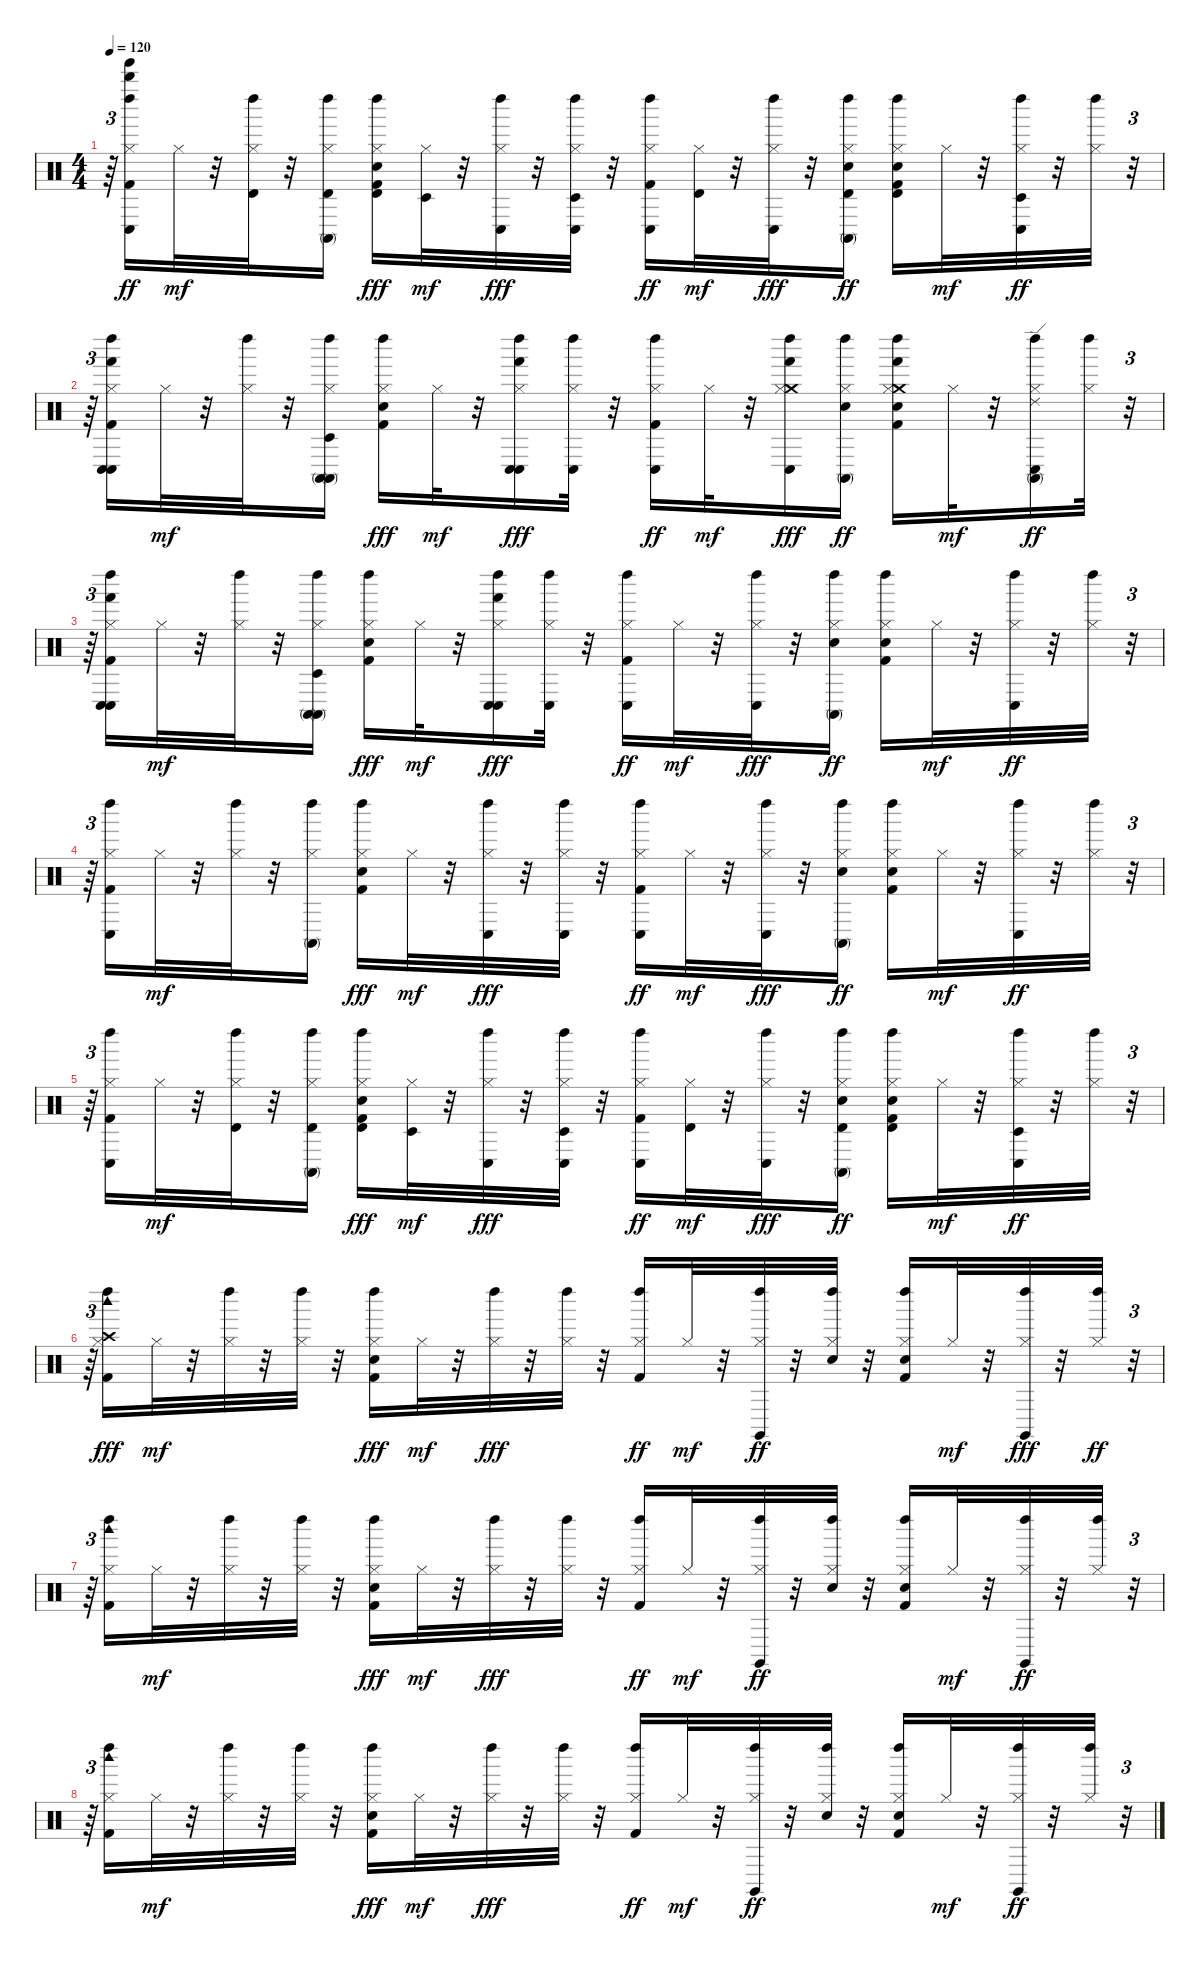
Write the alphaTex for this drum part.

\track "" {instrument percussion}
\staff {score}
\articulation defaults
\ts (4 4)
\tempo 120
\clef neutral
\ks c
r.64{tu (3 2) dy ff} ("Whistle high (hit)" "Tinkle Bell (hit)" "Kick (hit) 2" "Conga low (hit)" "Hi-Hat (closed)" "Left Maraca (hit)").16 "Hi-Hat (closed)".32{dy mf} r.32 ("Timbale high (hit)" "Hi-Hat (closed)" "Left Maraca (hit)").32 r.32 ("Timbale high (hit)" "Conga high (mute)" "Hi-Hat (closed)" "Left Maraca (hit)").16 ("Kick (hit) 2" "Electric Snare (hit)" "Timbale high (hit)" "Hi-Hat (closed)" "Left Maraca (hit)").16{dy fff} ("Timbale low (hit)" "Hi-Hat (closed)").32{dy mf} r.32 ("Conga low (hit)" "Hi-Hat (closed)" "Left Maraca (hit)").32{dy fff} r.32 ("Timbale low (hit)" "Conga low (hit)" "Hi-Hat (closed)" "Left Maraca (hit)").32 r.32 ("Kick (hit) 2" "Conga low (hit)" "Hi-Hat (closed)" "Left Maraca (hit)").16{dy ff} ("Timbale high (hit)" "Hi-Hat (closed)").32{dy mf} r.32 ("Conga low (hit)" "Hi-Hat (closed)" "Left Maraca (hit)").32{dy fff} r.32 ("Electric Snare (hit)" "Timbale high (hit)" "Conga high (mute)" "Hi-Hat (closed)" "Left Maraca (hit)").16{dy ff} ("Kick (hit) 2" "Electric Snare (hit)" "Timbale high (hit)" "Hi-Hat (closed)" "Left Maraca (hit)").16 "Hi-Hat (closed)".32{dy mf} r.32 ("Timbale low (hit)" "Conga low (hit)" "Hi-Hat (closed)" "Left Maraca (hit)").32{dy ff} r.32 ("Hi-Hat (closed)" "Left Maraca (hit)").32 r.32{tu (3 2)} |
r.64{tu (3 2)} ("Conga low (hit)" "Hand (hit)" "Kick (hit) 2" "Conga low (hit)" "Hi-Hat (closed)" "Left Maraca (hit)").16 "Hi-Hat (closed)".32{dy mf} r.32 ("Hi-Hat (closed)" "Left Maraca (hit)").32 r.32 ("Timbale low (hit)" "Conga high (mute)" "Conga high (mute)" "Hi-Hat (closed)" "Left Maraca (hit)").16 ("Kick (hit) 2" "Electric Snare (hit)" "Hi-Hat (closed)" "Left Maraca (hit)").16{dy fff} "Hi-Hat (closed)".32{dy mf} r.32 ("Conga low (hit)" "Hand (hit)" "Conga low (hit)" "Hi-Hat (closed)" "Left Maraca (hit)").16{dy fff} ("Conga low (hit)" "Hi-Hat (closed)" "Left Maraca (hit)").32 r.32 ("Kick (hit) 2" "Conga low (hit)" "Hi-Hat (closed)" "Left Maraca (hit)").16{dy ff} "Hi-Hat (closed)".32{dy mf} r.32 ("Hand (hit)" "Crash medium (hit)" "Conga low (hit)" "Hi-Hat (closed)" "Left Maraca (hit)").16{dy fff} ("Electric Snare (hit)" "Conga high (mute)" "Hi-Hat (closed)" "Left Maraca (hit)").16{dy ff} ("Hand (hit)" "Crash medium (hit)" "Kick (hit) 2" "Electric Snare (hit)" "Hi-Hat (closed)" "Left Maraca (hit)").16 "Hi-Hat (closed)".32{dy mf} r.32 ("Conga high (mute)" "Ride (edge) 2" "Conga low (hit)" "Hi-Hat (closed)" "Left Maraca (hit)").16{dy ff} ("Hi-Hat (closed)" "Left Maraca (hit)").32 r.32{tu (3 2)} |
r.64{tu (3 2)} ("Conga low (hit)" "Hand (hit)" "Kick (hit) 2" "Conga low (hit)" "Hi-Hat (closed)" "Left Maraca (hit)").16 "Hi-Hat (closed)".32{dy mf} r.32 ("Hi-Hat (closed)" "Left Maraca (hit)").32 r.32 ("Timbale low (hit)" "Conga high (mute)" "Conga high (mute)" "Hi-Hat (closed)" "Left Maraca (hit)").16 ("Kick (hit) 2" "Electric Snare (hit)" "Hi-Hat (closed)" "Left Maraca (hit)").16{dy fff} "Hi-Hat (closed)".32{dy mf} r.32 ("Conga low (hit)" "Hand (hit)" "Conga low (hit)" "Hi-Hat (closed)" "Left Maraca (hit)").16{dy fff} ("Conga low (hit)" "Hi-Hat (closed)" "Left Maraca (hit)").32 r.32 ("Kick (hit) 2" "Conga low (hit)" "Hi-Hat (closed)" "Left Maraca (hit)").16{dy ff} "Hi-Hat (closed)".32{dy mf} r.32 ("Conga low (hit)" "Hi-Hat (closed)" "Left Maraca (hit)").32{dy fff} r.32 ("Electric Snare (hit)" "Conga high (mute)" "Hi-Hat (closed)" "Left Maraca (hit)").16{dy ff} ("Kick (hit) 2" "Electric Snare (hit)" "Hi-Hat (closed)" "Left Maraca (hit)").16 "Hi-Hat (closed)".32{dy mf} r.32 ("Conga low (hit)" "Hi-Hat (closed)" "Left Maraca (hit)").32{dy ff} r.32 ("Hi-Hat (closed)" "Left Maraca (hit)").32 r.32{tu (3 2)} |
r.64{tu (3 2)} ("Kick (hit) 2" "Conga low (hit)" "Hi-Hat (closed)" "Left Maraca (hit)").16 "Hi-Hat (closed)".32{dy mf} r.32 ("Hi-Hat (closed)" "Left Maraca (hit)").32 r.32 ("Conga high (mute)" "Hi-Hat (closed)" "Left Maraca (hit)").16 ("Kick (hit) 2" "Electric Snare (hit)" "Hi-Hat (closed)" "Left Maraca (hit)").16{dy fff} "Hi-Hat (closed)".32{dy mf} r.32 ("Conga low (hit)" "Hi-Hat (closed)" "Left Maraca (hit)").32{dy fff} r.32 ("Conga low (hit)" "Hi-Hat (closed)" "Left Maraca (hit)").32 r.32 ("Kick (hit) 2" "Conga low (hit)" "Hi-Hat (closed)" "Left Maraca (hit)").16{dy ff} "Hi-Hat (closed)".32{dy mf} r.32 ("Conga low (hit)" "Hi-Hat (closed)" "Left Maraca (hit)").32{dy fff} r.32 ("Electric Snare (hit)" "Conga high (mute)" "Hi-Hat (closed)" "Left Maraca (hit)").16{dy ff} ("Kick (hit) 2" "Electric Snare (hit)" "Hi-Hat (closed)" "Left Maraca (hit)").16 "Hi-Hat (closed)".32{dy mf} r.32 ("Conga low (hit)" "Hi-Hat (closed)" "Left Maraca (hit)").32{dy ff} r.32 ("Hi-Hat (closed)" "Left Maraca (hit)").32 r.32{tu (3 2)} |
r.64{tu (3 2)} ("Kick (hit) 2" "Conga low (hit)" "Hi-Hat (closed)" "Left Maraca (hit)").16 "Hi-Hat (closed)".32{dy mf} r.32 ("Timbale high (hit)" "Hi-Hat (closed)" "Left Maraca (hit)").32 r.32 ("Timbale high (hit)" "Conga high (mute)" "Hi-Hat (closed)" "Left Maraca (hit)").16 ("Kick (hit) 2" "Electric Snare (hit)" "Timbale high (hit)" "Hi-Hat (closed)" "Left Maraca (hit)").16{dy fff} ("Timbale low (hit)" "Hi-Hat (closed)").32{dy mf} r.32 ("Conga low (hit)" "Hi-Hat (closed)" "Left Maraca (hit)").32{dy fff} r.32 ("Timbale low (hit)" "Conga low (hit)" "Hi-Hat (closed)" "Left Maraca (hit)").32 r.32 ("Kick (hit) 2" "Conga low (hit)" "Hi-Hat (closed)" "Left Maraca (hit)").16{dy ff} ("Timbale high (hit)" "Hi-Hat (closed)").32{dy mf} r.32 ("Conga low (hit)" "Hi-Hat (closed)" "Left Maraca (hit)").32{dy fff} r.32 ("Electric Snare (hit)" "Timbale high (hit)" "Conga high (mute)" "Hi-Hat (closed)" "Left Maraca (hit)").16{dy ff} ("Kick (hit) 2" "Electric Snare (hit)" "Timbale high (hit)" "Hi-Hat (closed)" "Left Maraca (hit)").16 "Hi-Hat (closed)".32{dy mf} r.32 ("Timbale low (hit)" "Conga low (hit)" "Hi-Hat (closed)" "Left Maraca (hit)").32{dy ff} r.32 ("Hi-Hat (closed)" "Left Maraca (hit)").32 r.32{tu (3 2)} |
r.64{tu (3 2)} ("Kick (hit) 2" "Hi-Hat (closed)" "Left Maraca (hit)" "Crash high (hit)" "Woodblock high (hit)").16{dy fff} "Hi-Hat (closed)".32{dy mf} r.32 ("Hi-Hat (closed)" "Left Maraca (hit)").32 r.32 ("Hi-Hat (closed)" "Left Maraca (hit)").32 r.32 ("Kick (hit) 2" "Electric Snare (hit)" "Hi-Hat (closed)" "Left Maraca (hit)").16{dy fff} "Hi-Hat (closed)".32{dy mf} r.32 ("Hi-Hat (closed)" "Left Maraca (hit)").32{dy fff} r.32 ("Hi-Hat (closed)" "Left Maraca (hit)").32 r.32 ("Kick (hit) 2" "Hi-Hat (closed)" "Left Maraca (hit)").16{dy ff} "Hi-Hat (closed)".32{dy mf} r.32 ("Hi-Hat (closed)" "Left Maraca (hit)" "Claves (hit)").32{dy ff} r.32 ("Electric Snare (hit)" "Hi-Hat (closed)" "Left Maraca (hit)").32 r.32 ("Kick (hit) 2" "Electric Snare (hit)" "Hi-Hat (closed)" "Left Maraca (hit)").16 "Hi-Hat (closed)".32{dy mf} r.32 ("Hi-Hat (closed)" "Left Maraca (hit)" "Claves (hit)").32{dy fff} r.32 ("Hi-Hat (closed)" "Left Maraca (hit)").32{dy ff} r.32{tu (3 2)} |
r.64{tu (3 2)} ("Kick (hit) 2" "Hi-Hat (closed)" "Left Maraca (hit)" "Woodblock high (hit)").16 "Hi-Hat (closed)".32{dy mf} r.32 ("Hi-Hat (closed)" "Left Maraca (hit)").32 r.32 ("Hi-Hat (closed)" "Left Maraca (hit)").32 r.32 ("Kick (hit) 2" "Electric Snare (hit)" "Hi-Hat (closed)" "Left Maraca (hit)").16{dy fff} "Hi-Hat (closed)".32{dy mf} r.32 ("Hi-Hat (closed)" "Left Maraca (hit)").32{dy fff} r.32 ("Hi-Hat (closed)" "Left Maraca (hit)").32 r.32 ("Kick (hit) 2" "Hi-Hat (closed)" "Left Maraca (hit)").16{dy ff} "Hi-Hat (closed)".32{dy mf} r.32 ("Hi-Hat (closed)" "Left Maraca (hit)" "Claves (hit)").32{dy ff} r.32 ("Electric Snare (hit)" "Hi-Hat (closed)" "Left Maraca (hit)").32 r.32 ("Kick (hit) 2" "Electric Snare (hit)" "Hi-Hat (closed)" "Left Maraca (hit)").16 "Hi-Hat (closed)".32{dy mf} r.32 ("Hi-Hat (closed)" "Left Maraca (hit)" "Claves (hit)").32{dy ff} r.32 ("Hi-Hat (closed)" "Left Maraca (hit)").32 r.32{tu (3 2)} |
r.64{tu (3 2)} ("Kick (hit) 2" "Hi-Hat (closed)" "Left Maraca (hit)" "Woodblock high (hit)").16 "Hi-Hat (closed)".32{dy mf} r.32 ("Hi-Hat (closed)" "Left Maraca (hit)").32 r.32 ("Hi-Hat (closed)" "Left Maraca (hit)").32 r.32 ("Kick (hit) 2" "Electric Snare (hit)" "Hi-Hat (closed)" "Left Maraca (hit)").16{dy fff} "Hi-Hat (closed)".32{dy mf} r.32 ("Hi-Hat (closed)" "Left Maraca (hit)").32{dy fff} r.32 ("Hi-Hat (closed)" "Left Maraca (hit)").32 r.32 ("Kick (hit) 2" "Hi-Hat (closed)" "Left Maraca (hit)").16{dy ff} "Hi-Hat (closed)".32{dy mf} r.32 ("Hi-Hat (closed)" "Left Maraca (hit)" "Claves (hit)").32{dy ff} r.32 ("Electric Snare (hit)" "Hi-Hat (closed)" "Left Maraca (hit)").32 r.32 ("Kick (hit) 2" "Electric Snare (hit)" "Hi-Hat (closed)" "Left Maraca (hit)").16 "Hi-Hat (closed)".32{dy mf} r.32 ("Hi-Hat (closed)" "Left Maraca (hit)" "Claves (hit)").32{dy ff} r.32 ("Hi-Hat (closed)" "Left Maraca (hit)").32 r.32{tu (3 2)}
